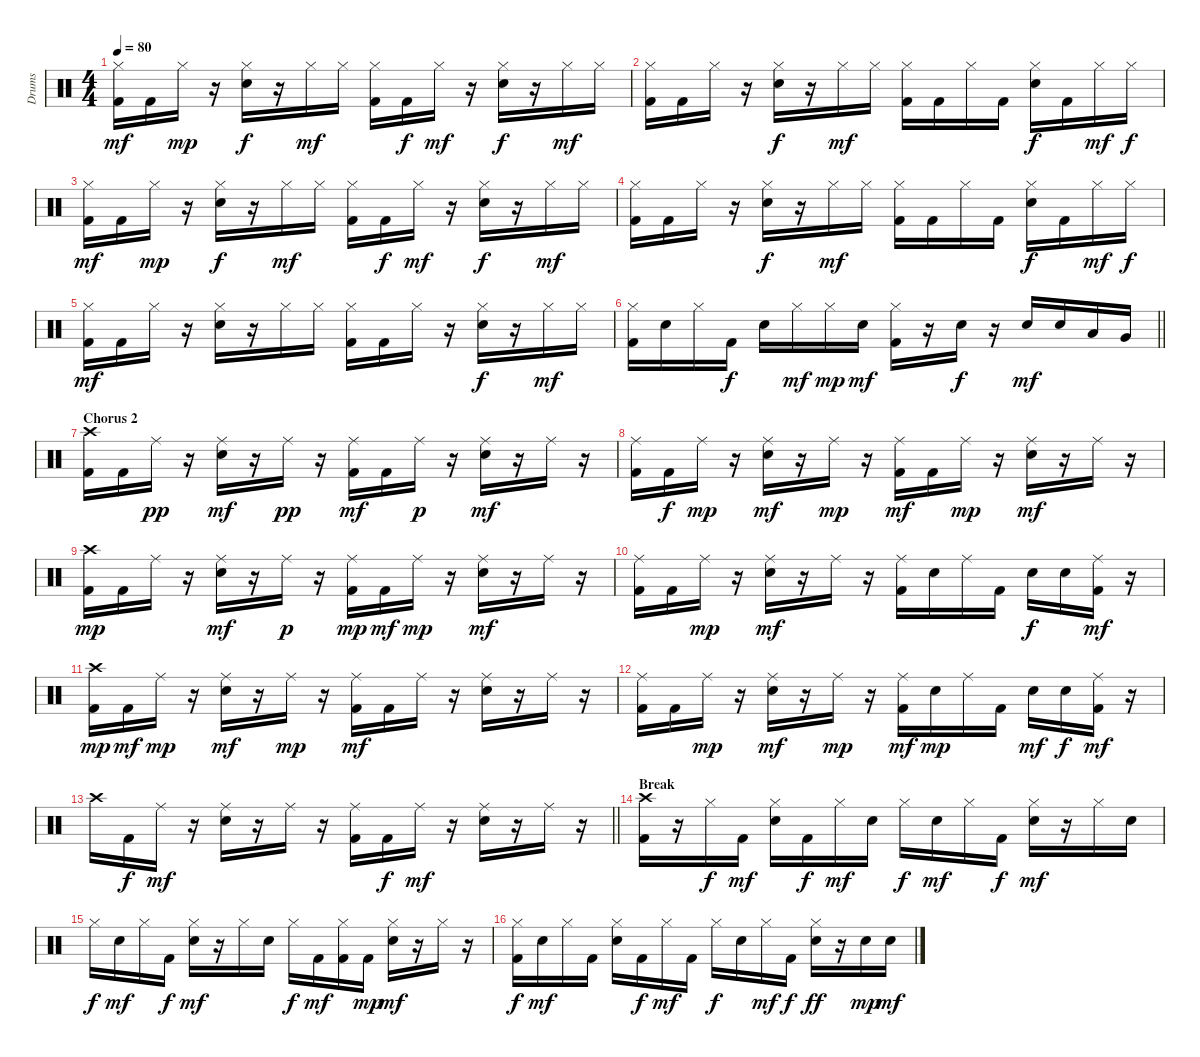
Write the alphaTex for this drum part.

\track ("Drums" "Drums") {instrument percussion}
\staff {score}
\articulation defaults
\ts (4 4)
\tempo 80
\clef neutral
\ks c
("Kick (hit) 2" "Hi-Hat (closed)").16{dy mf} "Kick (hit) 2".16 "Hi-Hat (closed)".16{dy mp} r.16 ("Snare (hit) 2" "Hi-Hat (closed)").16{dy f} r.16 "Hi-Hat (closed)".16{dy mf} "Hi-Hat (closed)".16 ("Kick (hit) 2" "Hi-Hat (closed)").16 "Kick (hit) 2".16{dy f} "Hi-Hat (closed)".16{dy mf} r.16 ("Snare (hit) 2" "Hi-Hat (closed)").16{dy f} r.16 "Hi-Hat (closed)".16{dy mf} "Hi-Hat (closed)".16 |
("Kick (hit) 2" "Hi-Hat (closed)").16 "Kick (hit) 2".16 "Hi-Hat (closed)".16 r.16 ("Snare (hit) 2" "Hi-Hat (closed)").16{dy f} r.16 "Hi-Hat (closed)".16{dy mf} "Hi-Hat (closed)".16 ("Kick (hit) 2" "Hi-Hat (closed)").16 "Kick (hit) 2".16 "Hi-Hat (closed)".16 "Kick (hit) 2".16 ("Snare (hit) 2" "Hi-Hat (closed)").16{dy f} "Kick (hit) 2".16 "Hi-Hat (closed)".16{dy mf} "Hi-Hat (closed)".16{dy f} |
("Kick (hit) 2" "Hi-Hat (closed)").16{dy mf} "Kick (hit) 2".16 "Hi-Hat (closed)".16{dy mp} r.16 ("Snare (hit) 2" "Hi-Hat (closed)").16{dy f} r.16 "Hi-Hat (closed)".16{dy mf} "Hi-Hat (closed)".16 ("Kick (hit) 2" "Hi-Hat (closed)").16 "Kick (hit) 2".16{dy f} "Hi-Hat (closed)".16{dy mf} r.16 ("Snare (hit) 2" "Hi-Hat (closed)").16{dy f} r.16 "Hi-Hat (closed)".16{dy mf} "Hi-Hat (closed)".16 |
("Kick (hit) 2" "Hi-Hat (closed)").16 "Kick (hit) 2".16 "Hi-Hat (closed)".16 r.16 ("Snare (hit) 2" "Hi-Hat (closed)").16{dy f} r.16 "Hi-Hat (closed)".16{dy mf} "Hi-Hat (closed)".16 ("Kick (hit) 2" "Hi-Hat (closed)").16 "Kick (hit) 2".16 "Hi-Hat (closed)".16 "Kick (hit) 2".16 ("Snare (hit) 2" "Hi-Hat (closed)").16{dy f} "Kick (hit) 2".16 "Hi-Hat (closed)".16{dy mf} "Hi-Hat (closed)".16{dy f} |
("Kick (hit) 2" "Hi-Hat (closed)").16{dy mf} "Kick (hit) 2".16 "Hi-Hat (closed)".16 r.16 ("Snare (hit) 2" "Hi-Hat (closed)").16 r.16 "Hi-Hat (closed)".16 "Hi-Hat (closed)".16 ("Kick (hit) 2" "Hi-Hat (closed)").16 "Kick (hit) 2".16 "Hi-Hat (closed)".16 r.16 ("Snare (hit) 2" "Hi-Hat (closed)").16{dy f} r.16 "Hi-Hat (closed)".16{dy mf} "Hi-Hat (closed)".16 |
\barLineRight lightlight
("Kick (hit) 2" "Hi-Hat (closed)").16 "Snare (hit) 2".16 "Hi-Hat (closed)".16 "Kick (hit) 2".16{dy f} "Snare (hit) 2".16 "Hi-Hat (closed)".16{dy mf} "Hi-Hat (closed)".16{dy mp} "Snare (hit) 2".16{dy mf} ("Kick (hit) 2" "Hi-Hat (closed)").16 r.16 "Snare (hit) 2".16{dy f} r.16 "Snare (hit) 2".16{dy mf} "Snare (hit) 2".16 "Low Tom (hit)".16 "Very Low Tom (hit)".16 |
\section ("" "Chorus 2")
("Kick (hit) 2" "Crash high (hit)").16 "Kick (hit) 2".16 "Ride (middle)".16{dy pp} r.16 ("Snare (hit) 2" "Ride (middle)").16{dy mf} r.16 "Ride (middle)".16{dy pp} r.16 ("Kick (hit) 2" "Ride (middle)").16{dy mf} "Kick (hit) 2".16 "Ride (middle)".16{dy p} r.16 ("Snare (hit) 2" "Ride (middle)").16{dy mf} r.16 "Ride (middle)".16 r.16 |
("Kick (hit) 2" "Ride (middle)").16 "Kick (hit) 2".16{dy f} "Ride (middle)".16{dy mp} r.16 ("Snare (hit) 2" "Ride (middle)").16{dy mf} r.16 "Ride (middle)".16{dy mp} r.16 ("Kick (hit) 2" "Ride (middle)").16{dy mf} "Kick (hit) 2".16 "Ride (middle)".16{dy mp} r.16 ("Snare (hit) 2" "Ride (middle)").16{dy mf} r.16 "Ride (middle)".16 r.16 |
("Kick (hit) 2" "Crash high (hit)").16{dy mp} "Kick (hit) 2".16 "Ride (middle)".16 r.16 ("Snare (hit) 2" "Ride (middle)").16{dy mf} r.16 "Ride (middle)".16{dy p} r.16 ("Kick (hit) 2" "Ride (middle)").16{dy mp} "Kick (hit) 2".16{dy mf} "Ride (middle)".16{dy mp} r.16 ("Snare (hit) 2" "Ride (middle)").16{dy mf} r.16 "Ride (middle)".16 r.16 |
("Kick (hit) 2" "Ride (middle)").16 "Kick (hit) 2".16 "Ride (middle)".16{dy mp} r.16 ("Snare (hit) 2" "Ride (middle)").16{dy mf} r.16 "Ride (middle)".16 r.16 ("Kick (hit) 2" "Ride (middle)").16 "Snare (hit) 2".16 "Ride (middle)".16 "Kick (hit) 2".16 "Snare (hit) 2".16{dy f} "Snare (hit) 2".16 ("Kick (hit) 2" "Ride (middle)").16{dy mf} r.16 |
("Kick (hit) 2" "Crash high (hit)").16{dy mp} "Kick (hit) 2".16{dy mf} "Ride (middle)".16{dy mp} r.16 ("Snare (hit) 2" "Ride (middle)").16{dy mf} r.16 "Ride (middle)".16{dy mp} r.16 ("Kick (hit) 2" "Ride (middle)").16{dy mf} "Kick (hit) 2".16 "Ride (middle)".16 r.16 ("Snare (hit) 2" "Ride (middle)").16 r.16 "Ride (middle)".16 r.16 |
("Kick (hit) 2" "Ride (middle)").16 "Kick (hit) 2".16 "Ride (middle)".16{dy mp} r.16 ("Snare (hit) 2" "Ride (middle)").16{dy mf} r.16 "Ride (middle)".16{dy mp} r.16 ("Kick (hit) 2" "Ride (middle)").16{dy mf} "Snare (hit) 2".16{dy mp} "Ride (middle)".16 "Kick (hit) 2".16 "Snare (hit) 2".16{dy mf} "Snare (hit) 2".16{dy f} ("Kick (hit) 2" "Ride (middle)").16{dy mf} r.16 |
\barLineRight lightlight "Crash high (hit)".16 "Kick (hit) 2".16{dy f} "Ride (middle)".16{dy mf}
r.16 ("Snare (hit) 2" "Ride (middle)").16 r.16 "Ride (middle)".16 r.16 ("Kick (hit) 2" "Ride (middle)").16 "Kick (hit) 2".16{dy f} "Ride (middle)".16{dy mf} r.16 ("Snare (hit) 2" "Ride (middle)").16 r.16 "Ride (middle)".16 r.16 |
\section ("" "Break")
("Kick (hit) 2" "Crash high (hit)").16 r.16 "Hi-Hat (closed)".16{dy f} "Kick (hit) 2".16{dy mf} ("Snare (hit) 2" "Hi-Hat (closed)").16 "Kick (hit) 2".16{dy f} "Hi-Hat (closed)".16{dy mf} "Snare (hit) 2".16 "Hi-Hat (closed)".16{dy f} "Snare (hit) 2".16{dy mf} "Hi-Hat (closed)".16 "Kick (hit) 2".16{dy f} ("Snare (hit) 2" "Hi-Hat (closed)").16{dy mf} r.16 "Hi-Hat (closed)".16 "Snare (hit) 2".16 |
"Hi-Hat (closed)".16{dy f} "Snare (hit) 2".16{dy mf} "Hi-Hat (closed)".16 "Kick (hit) 2".16{dy f} ("Snare (hit) 2" "Hi-Hat (closed)").16{dy mf} r.16 "Hi-Hat (closed)".16 "Snare (hit) 2".16 "Hi-Hat (closed)".16{dy f} "Kick (hit) 2".16{dy mf} ("Kick (hit) 2" "Hi-Hat (closed)").16 "Kick (hit) 2".16{dy mp} ("Snare (hit) 2" "Hi-Hat (closed)").16{dy mf} r.16 "Hi-Hat (closed)".16 r.16 |
("Kick (hit) 2" "Hi-Hat (closed)").16{dy f} "Snare (hit) 2".16{dy mf} "Hi-Hat (closed)".16 "Kick (hit) 2".16 ("Snare (hit) 2" "Hi-Hat (closed)").16 "Kick (hit) 2".16{dy f} "Hi-Hat (closed)".16{dy mf} "Kick (hit) 2".16 "Hi-Hat (closed)".16{dy f} "Snare (hit) 2".16 "Hi-Hat (closed)".16{dy mf} "Kick (hit) 2".16{dy f} ("Snare (hit) 2" "Hi-Hat (closed)").16{dy ff} r.16 "Snare (hit) 2".16{dy mp} "Snare (hit) 2".16{dy mf}
